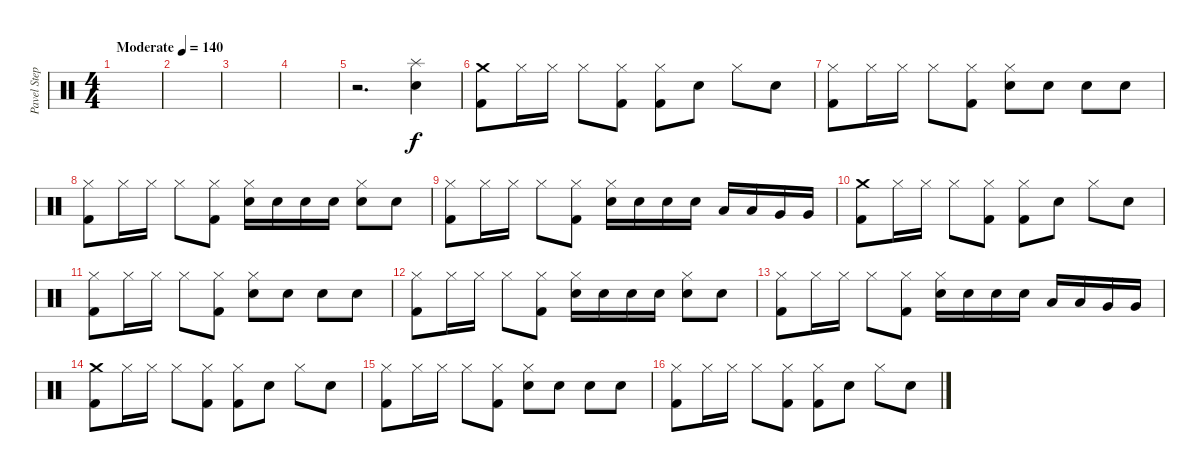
\track ("Pavel Stepan" "Pavel Step") {instrument percussion}
\staff {score}
\articulation defaults
\ts (4 4)
\tempo (140 "Moderate")
\clef neutral
\ks c
|
|
|
|
r.2{d} ("Splash (hit)" "Snare (hit) 2").4 |
("Crash medium (hit)" "Kick (hit) 2").8 "Hi-Hat (closed)".16 "Hi-Hat (closed)".16 "Hi-Hat (closed)".8 ("Hi-Hat (closed)" "Kick (hit) 2").8 ("Hi-Hat (closed)" "Kick (hit) 2").8 "Snare (hit) 2".8 "Hi-Hat (closed)".8 "Snare (hit) 2".8 |
("Hi-Hat (closed)" "Kick (hit) 2").8 "Hi-Hat (closed)".16 "Hi-Hat (closed)".16 "Hi-Hat (closed)".8 ("Hi-Hat (closed)" "Kick (hit) 2").8 ("Hi-Hat (closed)" "Snare (hit) 2").8 "Snare (hit) 2".8 "Snare (hit) 2".8 "Snare (hit) 2".8 |
("Hi-Hat (closed)" "Kick (hit) 2").8 "Hi-Hat (closed)".16 "Hi-Hat (closed)".16 "Hi-Hat (closed)".8 ("Hi-Hat (closed)" "Kick (hit) 2").8 ("Hi-Hat (closed)" "Snare (hit) 2").16 "Snare (hit) 2".16 "Snare (hit) 2".16 "Snare (hit) 2".16 ("Hi-Hat (closed)" "Snare (hit) 2").8 "Snare (hit) 2".8 |
("Hi-Hat (closed)" "Kick (hit) 2").8 "Hi-Hat (closed)".16 "Hi-Hat (closed)".16 "Hi-Hat (closed)".8 ("Hi-Hat (closed)" "Kick (hit) 2").8 ("Hi-Hat (closed)" "Snare (hit) 2").16 "Snare (hit) 2".16 "Snare (hit) 2".16 "Snare (hit) 2".16 "Low Tom (hit)".16 "Low Tom (hit)".16 "Very Low Tom (hit)".16 "Very Low Tom (hit)".16 |
("Crash medium (hit)" "Kick (hit) 2").8 "Hi-Hat (closed)".16 "Hi-Hat (closed)".16 "Hi-Hat (closed)".8 ("Hi-Hat (closed)" "Kick (hit) 2").8 ("Hi-Hat (closed)" "Kick (hit) 2").8 "Snare (hit) 2".8 "Hi-Hat (closed)".8 "Snare (hit) 2".8 |
("Hi-Hat (closed)" "Kick (hit) 2").8 "Hi-Hat (closed)".16 "Hi-Hat (closed)".16 "Hi-Hat (closed)".8 ("Hi-Hat (closed)" "Kick (hit) 2").8 ("Hi-Hat (closed)" "Snare (hit) 2").8 "Snare (hit) 2".8 "Snare (hit) 2".8 "Snare (hit) 2".8 |
("Hi-Hat (closed)" "Kick (hit) 2").8 "Hi-Hat (closed)".16 "Hi-Hat (closed)".16 "Hi-Hat (closed)".8 ("Hi-Hat (closed)" "Kick (hit) 2").8 ("Hi-Hat (closed)" "Snare (hit) 2").16 "Snare (hit) 2".16 "Snare (hit) 2".16 "Snare (hit) 2".16 ("Hi-Hat (closed)" "Snare (hit) 2").8 "Snare (hit) 2".8 |
("Hi-Hat (closed)" "Kick (hit) 2").8 "Hi-Hat (closed)".16 "Hi-Hat (closed)".16 "Hi-Hat (closed)".8 ("Hi-Hat (closed)" "Kick (hit) 2").8 ("Hi-Hat (closed)" "Snare (hit) 2").16 "Snare (hit) 2".16 "Snare (hit) 2".16 "Snare (hit) 2".16 "Low Tom (hit)".16 "Low Tom (hit)".16 "Very Low Tom (hit)".16 "Very Low Tom (hit)".16 |
("Crash medium (hit)" "Kick (hit) 2").8 "Hi-Hat (closed)".16 "Hi-Hat (closed)".16 "Hi-Hat (closed)".8 ("Hi-Hat (closed)" "Kick (hit) 2").8 ("Hi-Hat (closed)" "Kick (hit) 2").8 "Snare (hit) 2".8 "Hi-Hat (closed)".8 "Snare (hit) 2".8 |
("Hi-Hat (closed)" "Kick (hit) 2").8 "Hi-Hat (closed)".16 "Hi-Hat (closed)".16 "Hi-Hat (closed)".8 ("Hi-Hat (closed)" "Kick (hit) 2").8 ("Hi-Hat (closed)" "Snare (hit) 2").8 "Snare (hit) 2".8 "Snare (hit) 2".8 "Snare (hit) 2".8 |
("Hi-Hat (closed)" "Kick (hit) 2").8 "Hi-Hat (closed)".16 "Hi-Hat (closed)".16 "Hi-Hat (closed)".8 ("Hi-Hat (closed)" "Kick (hit) 2").8 ("Hi-Hat (closed)" "Kick (hit) 2").8 "Snare (hit) 2".8 "Hi-Hat (closed)".8 "Snare (hit) 2".8
